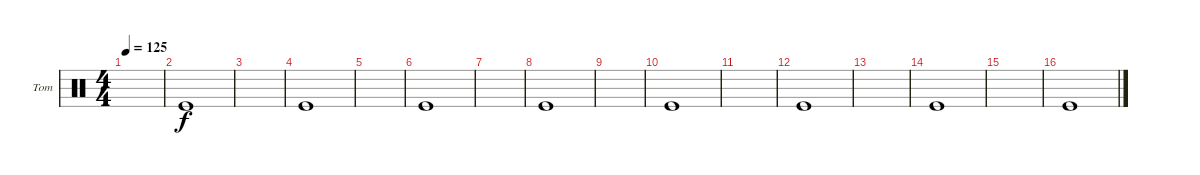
\defaultSystemsLayout 4
\bracketExtendMode groupsimilarinstruments
\firstSystemTrackNameOrientation horizontal
\otherSystemsTrackNameOrientation horizontal
\track ("Melodic Tom" "Tom") {instrument percussion}
\staff {score}
\articulation defaults
\ts (4 4)
\tempo 125
\clef neutral
\scale
0.474178
\ks c
|
\scale
0.262911 "Kick (hit)".1 |
|
"Kick (hit)".1 |
|
\scale
0.262911 "Kick (hit)".1 |
\scale
0.333333 |
\scale
0.333333 "Kick (hit)".1 |
|
\scale
0.333333 "Kick (hit)".1 |
\scale
0.333333 |
\scale
0.333333 "Kick (hit)".1 |
\scale
0.333333 |
\scale
0.333333 "Kick (hit)".1 |
\scale
0.333333 |
\scale
0.333333 "Kick (hit)".1
